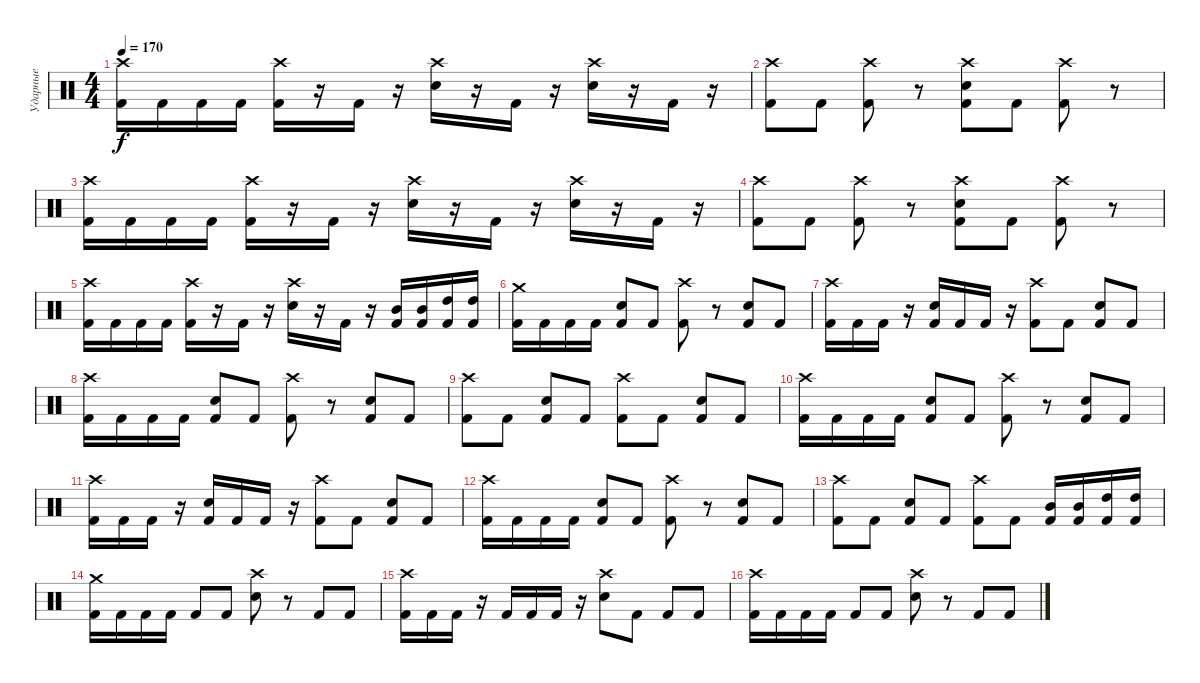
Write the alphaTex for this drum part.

\track ("Ударные" "Ударные") {instrument percussion}
\staff {score}
\articulation defaults
\ts (4 4)
\tempo 170
\clef neutral
\ks c
("Crash high (hit)" "Kick (hit) 2").16{dy f} "Kick (hit) 2".16 "Kick (hit) 2".16 "Kick (hit) 2".16 ("Crash high (hit)" "Kick (hit) 2").16 r.16 "Kick (hit) 2".16 r.16 ("Crash high (hit)" "Snare (hit) 2").16 r.16 "Kick (hit) 2".16 r.16 ("Crash high (hit)" "Snare (hit) 2").16 r.16 "Kick (hit) 2".16 r.16 |
("Crash high (hit)" "Kick (hit) 2").8 "Kick (hit) 2".8 ("Crash high (hit)" "Kick (hit) 2").8 r.8 ("Crash high (hit)" "Snare (hit) 2" "Kick (hit) 2").8 "Kick (hit) 2".8 ("Crash high (hit)" "Kick (hit) 2").8 r.8 |
("Crash high (hit)" "Kick (hit) 2").16 "Kick (hit) 2".16 "Kick (hit) 2".16 "Kick (hit) 2".16 ("Crash high (hit)" "Kick (hit) 2").16 r.16 "Kick (hit) 2".16 r.16 ("Crash high (hit)" "Snare (hit) 2").16 r.16 "Kick (hit) 2".16 r.16 ("Crash high (hit)" "Snare (hit) 2").16 r.16 "Kick (hit) 2".16 r.16 |
("Crash high (hit)" "Kick (hit) 2").8 "Kick (hit) 2".8 ("Crash high (hit)" "Kick (hit) 2").8 r.8 ("Crash high (hit)" "Snare (hit) 2" "Kick (hit) 2").8 "Kick (hit) 2".8 ("Crash high (hit)" "Kick (hit) 2").8 r.8 |
("Crash high (hit)" "Kick (hit) 2").16 "Kick (hit) 2".16 "Kick (hit) 2".16 "Kick (hit) 2".16 ("Crash high (hit)" "Kick (hit) 2").16 r.16 "Kick (hit) 2".16 r.16 ("Crash high (hit)" "Snare (hit) 2").16 r.16 "Kick (hit) 2".16 r.16 ("Mid Tom (hit)" "Kick (hit) 2").16 ("Mid Tom (hit)" "Kick (hit) 2").16 ("High Tom (hit)" "Kick (hit) 2").16 ("High Tom (hit)" "Kick (hit) 2").16 |
("Crash medium (hit)" "Kick (hit) 2").16 "Kick (hit) 2".16 "Kick (hit) 2".16 "Kick (hit) 2".16 ("Electric Snare (hit)" "Kick (hit) 2").8 "Kick (hit) 2".8 ("Crash high (hit)" "Kick (hit) 2").8 r.8 ("Electric Snare (hit)" "Kick (hit) 2").8 "Kick (hit) 2".8 |
("Crash high (hit)" "Kick (hit) 2").16 "Kick (hit) 2".16 "Kick (hit) 2".16 r.16 ("Electric Snare (hit)" "Kick (hit) 2").16 "Kick (hit) 2".16 "Kick (hit) 2".16 r.16 ("Crash high (hit)" "Kick (hit) 2").8 "Kick (hit) 2".8 ("Electric Snare (hit)" "Kick (hit) 2").8 "Kick (hit) 2".8 |
("Crash high (hit)" "Kick (hit) 2").16 "Kick (hit) 2".16 "Kick (hit) 2".16 "Kick (hit) 2".16 ("Electric Snare (hit)" "Kick (hit) 2").8 "Kick (hit) 2".8 ("Crash high (hit)" "Kick (hit) 2").8 r.8 ("Electric Snare (hit)" "Kick (hit) 2").8 "Kick (hit) 2".8 |
("Crash high (hit)" "Kick (hit) 2").8 "Kick (hit) 2".8 ("Electric Snare (hit)" "Kick (hit) 2").8 "Kick (hit) 2".8 ("Crash high (hit)" "Kick (hit) 2").8 "Kick (hit) 2".8 ("Electric Snare (hit)" "Kick (hit) 2").8 "Kick (hit) 2".8 |
("Crash high (hit)" "Kick (hit) 2").16 "Kick (hit) 2".16 "Kick (hit) 2".16 "Kick (hit) 2".16 ("Electric Snare (hit)" "Kick (hit) 2").8 "Kick (hit) 2".8 ("Crash high (hit)" "Kick (hit) 2").8 r.8 ("Electric Snare (hit)" "Kick (hit) 2").8 "Kick (hit) 2".8 |
("Crash high (hit)" "Kick (hit) 2").16 "Kick (hit) 2".16 "Kick (hit) 2".16 r.16 ("Electric Snare (hit)" "Kick (hit) 2").16 "Kick (hit) 2".16 "Kick (hit) 2".16 r.16 ("Crash high (hit)" "Kick (hit) 2").8 "Kick (hit) 2".8 ("Electric Snare (hit)" "Kick (hit) 2").8 "Kick (hit) 2".8 |
("Crash high (hit)" "Kick (hit) 2").16 "Kick (hit) 2".16 "Kick (hit) 2".16 "Kick (hit) 2".16 ("Electric Snare (hit)" "Kick (hit) 2").8 "Kick (hit) 2".8 ("Crash high (hit)" "Kick (hit) 2").8 r.8 ("Electric Snare (hit)" "Kick (hit) 2").8 "Kick (hit) 2".8 |
("Crash high (hit)" "Kick (hit) 2").8 "Kick (hit) 2".8 ("Electric Snare (hit)" "Kick (hit) 2").8 "Kick (hit) 2".8 ("Crash high (hit)" "Kick (hit) 2").8 "Kick (hit) 2".8 ("Mid Tom (hit)" "Kick (hit) 2").16 ("Mid Tom (hit)" "Kick (hit) 2").16 ("High Tom (hit)" "Kick (hit) 2").16 ("High Tom (hit)" "Kick (hit) 2").16 |
("Crash medium (hit)" "Kick (hit) 2").16 "Kick (hit) 2".16 "Kick (hit) 2".16 "Kick (hit) 2".16 "Kick (hit) 2".8 "Kick (hit) 2".8 ("Crash high (hit)" "Electric Snare (hit)").8 r.8 "Kick (hit) 2".8 "Kick (hit) 2".8 |
("Crash high (hit)" "Kick (hit) 2").16 "Kick (hit) 2".16 "Kick (hit) 2".16 r.16 "Kick (hit) 2".16 "Kick (hit) 2".16 "Kick (hit) 2".16 r.16 ("Crash high (hit)" "Electric Snare (hit)").8 "Kick (hit) 2".8 "Kick (hit) 2".8 "Kick (hit) 2".8 |
("Crash high (hit)" "Kick (hit) 2").16 "Kick (hit) 2".16 "Kick (hit) 2".16 "Kick (hit) 2".16 "Kick (hit) 2".8 "Kick (hit) 2".8 ("Crash high (hit)" "Electric Snare (hit)").8 r.8 "Kick (hit) 2".8 "Kick (hit) 2".8
